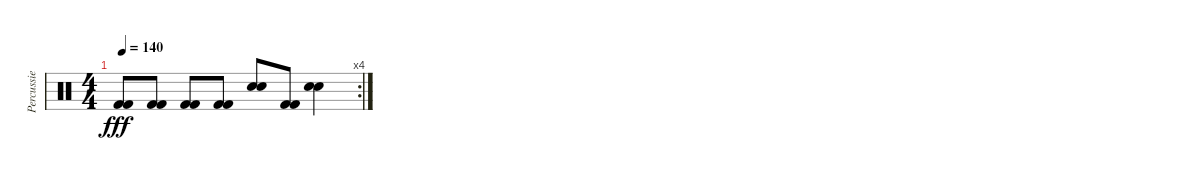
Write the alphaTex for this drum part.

\track ("Percussie" "Percussie") {instrument percussion}
\staff {score}
\articulation defaults
\rc 4
\ts (4 4)
\tempo 140
\clef neutral
\ks c
("Kick (hit) 2" "Kick (hit) 2").8{dy fff} ("Kick (hit) 2" "Kick (hit) 2").8 ("Kick (hit) 2" "Kick (hit) 2").8 ("Kick (hit) 2" "Kick (hit) 2").8 ("Snare (hit) 2" "Snare (hit) 2").8{bd 480} ("Kick (hit) 2" "Kick (hit) 2").8 ("Snare (hit) 2" "Snare (hit) 2").4{bd 480}
